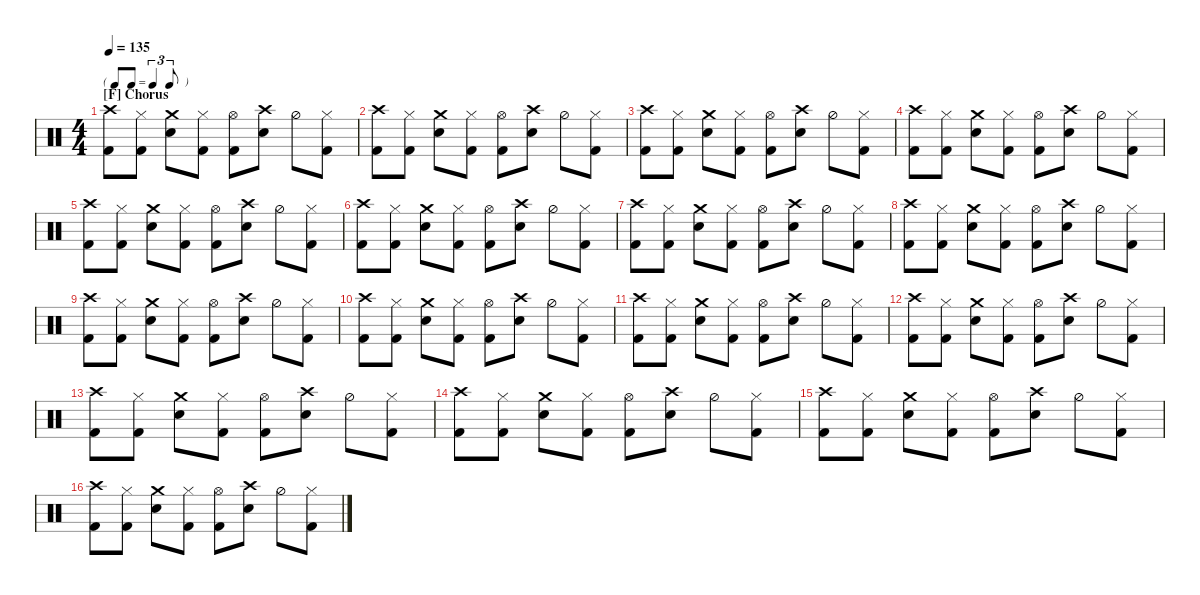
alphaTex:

\defaultSystemsLayout 4
\hideDynamics
\bracketExtendMode nobrackets
\singleTrackTrackNamePolicy hidden
\multiTrackTrackNamePolicy hidden
\firstSystemTrackNameMode fullname
\firstSystemTrackNameOrientation horizontal
\otherSystemsTrackNameOrientation horizontal
\track ("Drum" "Drums") {instrument percussion}
\staff {score}
\articulation defaults
\ts (4 4)
\tf triplet8th
\section ("F" "Chorus")
\scale
0.238636
\tempo 135
\accidentals auto
\clef neutral
\ottava regular
\simile none
\scale
0.25
\ks c
("Kick (hit) 2" "Crash high (hit)").8{dy f beam Down} ("Kick (hit) 2" "Hi-Hat (closed)").8{beam Down} ("Snare (hit) 2" "Crash medium (hit)").8{beam Down} ("Kick (hit) 2" "Hi-Hat (closed)").8{beam Down} ("Kick (hit) 2" "Hi-Hat (open)").8{beam Down} ("Snare (hit) 2" "Crash high (hit)").8{beam Down} "Hi-Hat (half)".8{beam Down} ("Kick (hit) 2" "Hi-Hat (closed)").8{beam Down} |
\scale
0.284091
\scale
0.25 ("Kick (hit) 2" "Crash high (hit)").8{beam Down} ("Kick (hit) 2" "Hi-Hat (closed)").8{beam Down} ("Snare (hit) 2" "Crash medium (hit)").8{beam Down} ("Kick (hit) 2" "Hi-Hat (closed)").8{beam Down} ("Kick (hit) 2" "Hi-Hat (open)").8{beam Down} ("Snare (hit) 2" "Crash high (hit)").8{beam Down} "Hi-Hat (half)".8{beam Down} ("Kick (hit) 2" "Hi-Hat (closed)").8{beam Down} |
\scale
0.238636
\scale
0.25 ("Kick (hit) 2" "Crash high (hit)").8{beam Down} ("Kick (hit) 2" "Hi-Hat (closed)").8{beam Down} ("Snare (hit) 2" "Crash medium (hit)").8{beam Down} ("Kick (hit) 2" "Hi-Hat (closed)").8{beam Down} ("Kick (hit) 2" "Hi-Hat (open)").8{beam Down} ("Snare (hit) 2" "Crash high (hit)").8{beam Down} "Hi-Hat (half)".8{beam Down} ("Kick (hit) 2" "Hi-Hat (closed)").8{beam Down} |
\scale
0.238636
\scale
0.25 ("Kick (hit) 2" "Crash high (hit)").8{beam Down} ("Kick (hit) 2" "Hi-Hat (closed)").8{beam Down} ("Snare (hit) 2" "Crash medium (hit)").8{beam Down} ("Kick (hit) 2" "Hi-Hat (closed)").8{beam Down} ("Kick (hit) 2" "Hi-Hat (open)").8{beam Down} ("Snare (hit) 2" "Crash high (hit)").8{beam Down} "Hi-Hat (half)".8{beam Down} ("Kick (hit) 2" "Hi-Hat (closed)").8{beam Down} |
\scale
0.225806
\scale
0.25 ("Kick (hit) 2" "Crash high (hit)").8{beam Down} ("Kick (hit) 2" "Hi-Hat (closed)").8{beam Down} ("Snare (hit) 2" "Crash medium (hit)").8{beam Down} ("Kick (hit) 2" "Hi-Hat (closed)").8{beam Down} ("Kick (hit) 2" "Hi-Hat (open)").8{beam Down} ("Snare (hit) 2" "Crash high (hit)").8{beam Down} "Hi-Hat (half)".8{beam Down} ("Kick (hit) 2" "Hi-Hat (closed)").8{beam Down} |
\scale
0.322581
\scale
0.25 ("Kick (hit) 2" "Crash high (hit)").8{beam Down} ("Kick (hit) 2" "Hi-Hat (closed)").8{beam Down} ("Snare (hit) 2" "Crash medium (hit)").8{beam Down} ("Kick (hit) 2" "Hi-Hat (closed)").8{beam Down} ("Kick (hit) 2" "Hi-Hat (open)").8{beam Down} ("Snare (hit) 2" "Crash high (hit)").8{beam Down} "Hi-Hat (half)".8{beam Down} ("Kick (hit) 2" "Hi-Hat (closed)").8{beam Down} |
\scale
0.225806
\scale
0.25 ("Kick (hit) 2" "Crash high (hit)").8{beam Down} ("Kick (hit) 2" "Hi-Hat (closed)").8{beam Down} ("Snare (hit) 2" "Crash medium (hit)").8{beam Down} ("Kick (hit) 2" "Hi-Hat (closed)").8{beam Down} ("Kick (hit) 2" "Hi-Hat (open)").8{beam Down} ("Snare (hit) 2" "Crash high (hit)").8{beam Down} "Hi-Hat (half)".8{beam Down} ("Kick (hit) 2" "Hi-Hat (closed)").8{beam Down} |
\scale
0.225806
\scale
0.25 ("Kick (hit) 2" "Crash high (hit)").8{beam Down} ("Kick (hit) 2" "Hi-Hat (closed)").8{beam Down} ("Snare (hit) 2" "Crash medium (hit)").8{beam Down} ("Kick (hit) 2" "Hi-Hat (closed)").8{beam Down} ("Kick (hit) 2" "Hi-Hat (open)").8{beam Down} ("Snare (hit) 2" "Crash high (hit)").8{beam Down} "Hi-Hat (half)".8{beam Down} ("Kick (hit) 2" "Hi-Hat (closed)").8{beam Down} |
\scale
0.238636
\scale
0.25 ("Kick (hit) 2" "Crash high (hit)").8{beam Down} ("Kick (hit) 2" "Hi-Hat (closed)").8{beam Down} ("Snare (hit) 2" "Crash medium (hit)").8{beam Down} ("Kick (hit) 2" "Hi-Hat (closed)").8{beam Down} ("Kick (hit) 2" "Hi-Hat (open)").8{beam Down} ("Snare (hit) 2" "Crash high (hit)").8{beam Down} "Hi-Hat (half)".8{beam Down} ("Kick (hit) 2" "Hi-Hat (closed)").8{beam Down} |
\scale
0.284091
\scale
0.25 ("Kick (hit) 2" "Crash high (hit)").8{beam Down} ("Kick (hit) 2" "Hi-Hat (closed)").8{beam Down} ("Snare (hit) 2" "Crash medium (hit)").8{beam Down} ("Kick (hit) 2" "Hi-Hat (closed)").8{beam Down} ("Kick (hit) 2" "Hi-Hat (open)").8{beam Down} ("Snare (hit) 2" "Crash high (hit)").8{beam Down} "Hi-Hat (half)".8{beam Down} ("Kick (hit) 2" "Hi-Hat (closed)").8{beam Down} |
\scale
0.238636
\scale
0.25 ("Kick (hit) 2" "Crash high (hit)").8{beam Down} ("Kick (hit) 2" "Hi-Hat (closed)").8{beam Down} ("Snare (hit) 2" "Crash medium (hit)").8{beam Down} ("Kick (hit) 2" "Hi-Hat (closed)").8{beam Down} ("Kick (hit) 2" "Hi-Hat (open)").8{beam Down} ("Snare (hit) 2" "Crash high (hit)").8{beam Down} "Hi-Hat (half)".8{beam Down} ("Kick (hit) 2" "Hi-Hat (closed)").8{beam Down} |
\scale
0.238636
\scale
0.25 ("Kick (hit) 2" "Crash high (hit)").8{beam Down} ("Kick (hit) 2" "Hi-Hat (closed)").8{beam Down} ("Snare (hit) 2" "Crash medium (hit)").8{beam Down} ("Kick (hit) 2" "Hi-Hat (closed)").8{beam Down} ("Kick (hit) 2" "Hi-Hat (open)").8{beam Down} ("Snare (hit) 2" "Crash high (hit)").8{beam Down} "Hi-Hat (half)".8{beam Down} ("Kick (hit) 2" "Hi-Hat (closed)").8{beam Down} |
\scale
0.25
\scale
0.25 ("Kick (hit) 2" "Crash high (hit)").8{beam Down} ("Kick (hit) 2" "Hi-Hat (closed)").8{beam Down} ("Snare (hit) 2" "Crash medium (hit)").8{beam Down} ("Kick (hit) 2" "Hi-Hat (closed)").8{beam Down} ("Kick (hit) 2" "Hi-Hat (open)").8{beam Down} ("Snare (hit) 2" "Crash high (hit)").8{beam Down} "Hi-Hat (half)".8{beam Down} ("Kick (hit) 2" "Hi-Hat (closed)").8{beam Down} |
\scale
0.270833
\scale
0.25 ("Kick (hit) 2" "Crash high (hit)").8{beam Down} ("Kick (hit) 2" "Hi-Hat (closed)").8{beam Down} ("Snare (hit) 2" "Crash medium (hit)").8{beam Down} ("Kick (hit) 2" "Hi-Hat (closed)").8{beam Down} ("Kick (hit) 2" "Hi-Hat (open)").8{beam Down} ("Snare (hit) 2" "Crash high (hit)").8{beam Down} "Hi-Hat (half)".8{beam Down} ("Kick (hit) 2" "Hi-Hat (closed)").8{beam Down} |
\scale
0.21875
\scale
0.25 ("Kick (hit) 2" "Crash high (hit)").8{beam Down} ("Kick (hit) 2" "Hi-Hat (closed)").8{beam Down} ("Snare (hit) 2" "Crash medium (hit)").8{beam Down} ("Kick (hit) 2" "Hi-Hat (closed)").8{beam Down} ("Kick (hit) 2" "Hi-Hat (open)").8{beam Down} ("Snare (hit) 2" "Crash high (hit)").8{beam Down} "Hi-Hat (half)".8{beam Down} ("Kick (hit) 2" "Hi-Hat (closed)").8{beam Down} |
\scale
0.260417
\scale
0.25 ("Kick (hit) 2" "Crash high (hit)").8{beam Down} ("Kick (hit) 2" "Hi-Hat (closed)").8{beam Down} ("Snare (hit) 2" "Crash medium (hit)").8{beam Down} ("Kick (hit) 2" "Hi-Hat (closed)").8{beam Down} ("Kick (hit) 2" "Hi-Hat (open)").8{beam Down} ("Snare (hit) 2" "Crash high (hit)").8{beam Down} "Hi-Hat (half)".8{beam Down} ("Kick (hit) 2" "Hi-Hat (closed)").8{beam Down}
